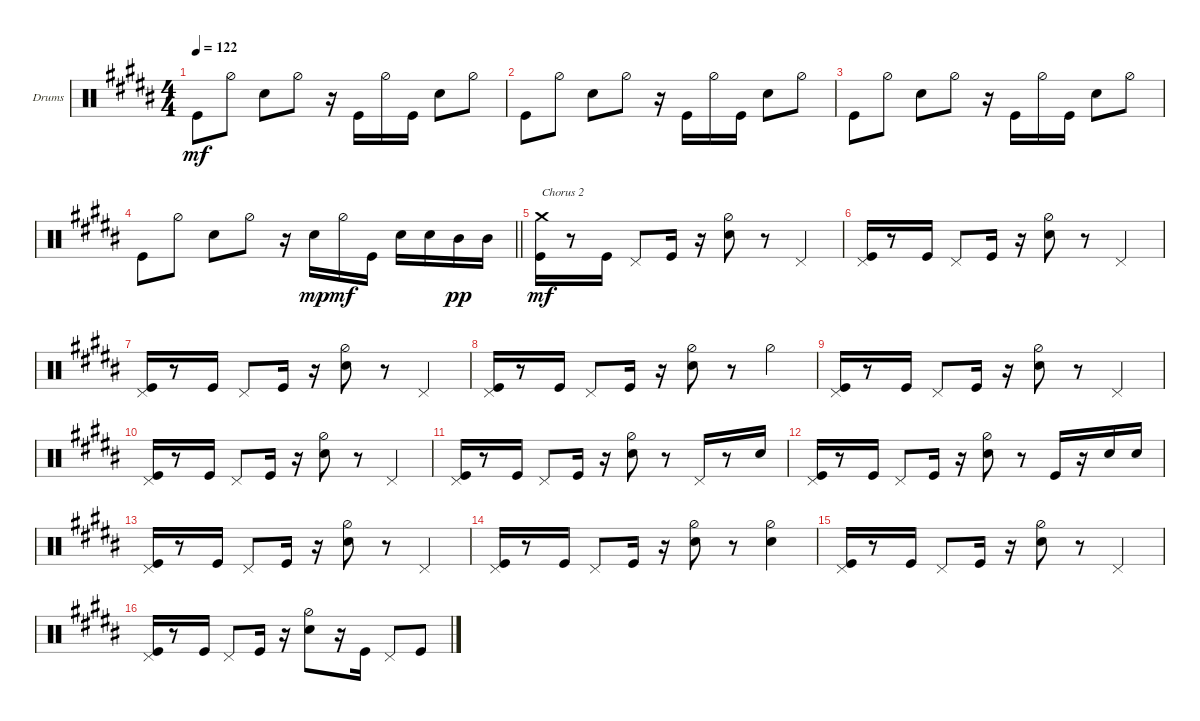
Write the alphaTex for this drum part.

\defaultSystemsLayout 4
\bracketExtendMode groupsimilarinstruments
\firstSystemTrackNameOrientation horizontal
\otherSystemsTrackNameOrientation horizontal
\track ("Drumkit" "Drums") {multiBarRest instrument percussion}
\staff {score}
\articulation defaults
\ts (4 4)
\tempo 122
\clef neutral
\ks b "Kick (hit)".8{dy mf} "Hi-Hat (half)".8 "Snare (hit) 2".8 "Hi-Hat (half)".8
r.16 "Kick (hit)".16 "Hi-Hat (half)".16 "Kick (hit)".16 "Snare (hit) 2".8 "Hi-Hat (half)".8 |
"Kick (hit)".8 "Hi-Hat (half)".8 "Snare (hit) 2".8 "Hi-Hat (half)".8 r.16 "Kick (hit)".16 "Hi-Hat (half)".16 "Kick (hit)".16 "Snare (hit) 2".8 "Hi-Hat (half)".8 |
"Kick (hit)".8 "Hi-Hat (half)".8 "Snare (hit) 2".8 "Hi-Hat (half)".8 r.16 "Kick (hit)".16 "Hi-Hat (half)".16 "Kick (hit)".16 "Snare (hit) 2".8 "Hi-Hat (half)".8 |
\barLineRight lightlight "Kick (hit)".8 "Hi-Hat (half)".8 "Snare (hit) 2".8 "Hi-Hat (half)".8
r.16 "Snare (hit) 2".16{dy mp} "Hi-Hat (half)".16{dy mf} "Kick (hit)".16 "Snare (hit) 2".16 "Snare (hit) 2".16 "Mid Tom (hit)".16{dy pp} "Mid Tom (hit)".16 |
("Kick (hit)" "Crash medium (hit)").16{txt "Chorus 2" dy mf} r.8 "Kick (hit)".16 "Pedal Hi-Hat (hit)".8 "Kick (hit)".16 r.16 ("Snare (hit) 2" "Hi-Hat (half)").8 r.8 "Pedal Hi-Hat (hit)".4 |
("Kick (hit)" "Pedal Hi-Hat (hit)").16 r.8 "Kick (hit)".16 "Pedal Hi-Hat (hit)".8 "Kick (hit)".16 r.16 ("Snare (hit) 2" "Hi-Hat (half)").8 r.8 "Pedal Hi-Hat (hit)".4 |
("Kick (hit)" "Pedal Hi-Hat (hit)").16 r.8 "Kick (hit)".16 "Pedal Hi-Hat (hit)".8 "Kick (hit)".16 r.16 ("Snare (hit) 2" "Hi-Hat (half)").8 r.8 "Pedal Hi-Hat (hit)".4 |
("Kick (hit)" "Pedal Hi-Hat (hit)").16 r.8 "Kick (hit)".16 "Pedal Hi-Hat (hit)".8 "Kick (hit)".16 r.16 ("Snare (hit) 2" "Hi-Hat (half)").8 r.8 "Hi-Hat (half)".4 |
("Kick (hit)" "Pedal Hi-Hat (hit)").16 r.8 "Kick (hit)".16 "Pedal Hi-Hat (hit)".8 "Kick (hit)".16 r.16 ("Snare (hit) 2" "Hi-Hat (half)").8 r.8 "Pedal Hi-Hat (hit)".4 |
("Kick (hit)" "Pedal Hi-Hat (hit)").16 r.8 "Kick (hit)".16 "Pedal Hi-Hat (hit)".8 "Kick (hit)".16 r.16 ("Snare (hit) 2" "Hi-Hat (half)").8 r.8 "Pedal Hi-Hat (hit)".4 |
("Kick (hit)" "Pedal Hi-Hat (hit)").16 r.8 "Kick (hit)".16 "Pedal Hi-Hat (hit)".8 "Kick (hit)".16 r.16 ("Snare (hit) 2" "Hi-Hat (half)").8 r.8 "Pedal Hi-Hat (hit)".16 r.8 "Snare (hit) 2".16 |
("Kick (hit)" "Pedal Hi-Hat (hit)").16 r.8 "Kick (hit)".16 "Pedal Hi-Hat (hit)".8 "Kick (hit)".16 r.16 ("Snare (hit) 2" "Hi-Hat (half)").8 r.8 "Kick (hit)".16 r.16 "Snare (hit) 2".16 "Snare (hit) 2".16 |
("Kick (hit)" "Pedal Hi-Hat (hit)").16 r.8 "Kick (hit)".16 "Pedal Hi-Hat (hit)".8 "Kick (hit)".16 r.16 ("Snare (hit) 2" "Hi-Hat (half)").8 r.8 "Pedal Hi-Hat (hit)".4 |
("Kick (hit)" "Pedal Hi-Hat (hit)").16 r.8 "Kick (hit)".16 "Pedal Hi-Hat (hit)".8 "Kick (hit)".16 r.16 ("Snare (hit) 2" "Hi-Hat (half)").8 r.8 ("Hi-Hat (half)" "Snare (hit) 2").4 |
("Kick (hit)" "Pedal Hi-Hat (hit)").16 r.8 "Kick (hit)".16 "Pedal Hi-Hat (hit)".8 "Kick (hit)".16 r.16 ("Snare (hit) 2" "Hi-Hat (half)").8 r.8 "Pedal Hi-Hat (hit)".4 |
("Kick (hit)" "Pedal Hi-Hat (hit)").16 r.8 "Kick (hit)".16 "Pedal Hi-Hat (hit)".8 "Kick (hit)".16 r.16 ("Snare (hit) 2" "Hi-Hat (half)").8 r.16 "Kick (hit)".16 "Pedal Hi-Hat (hit)".8 "Kick (hit)".8
